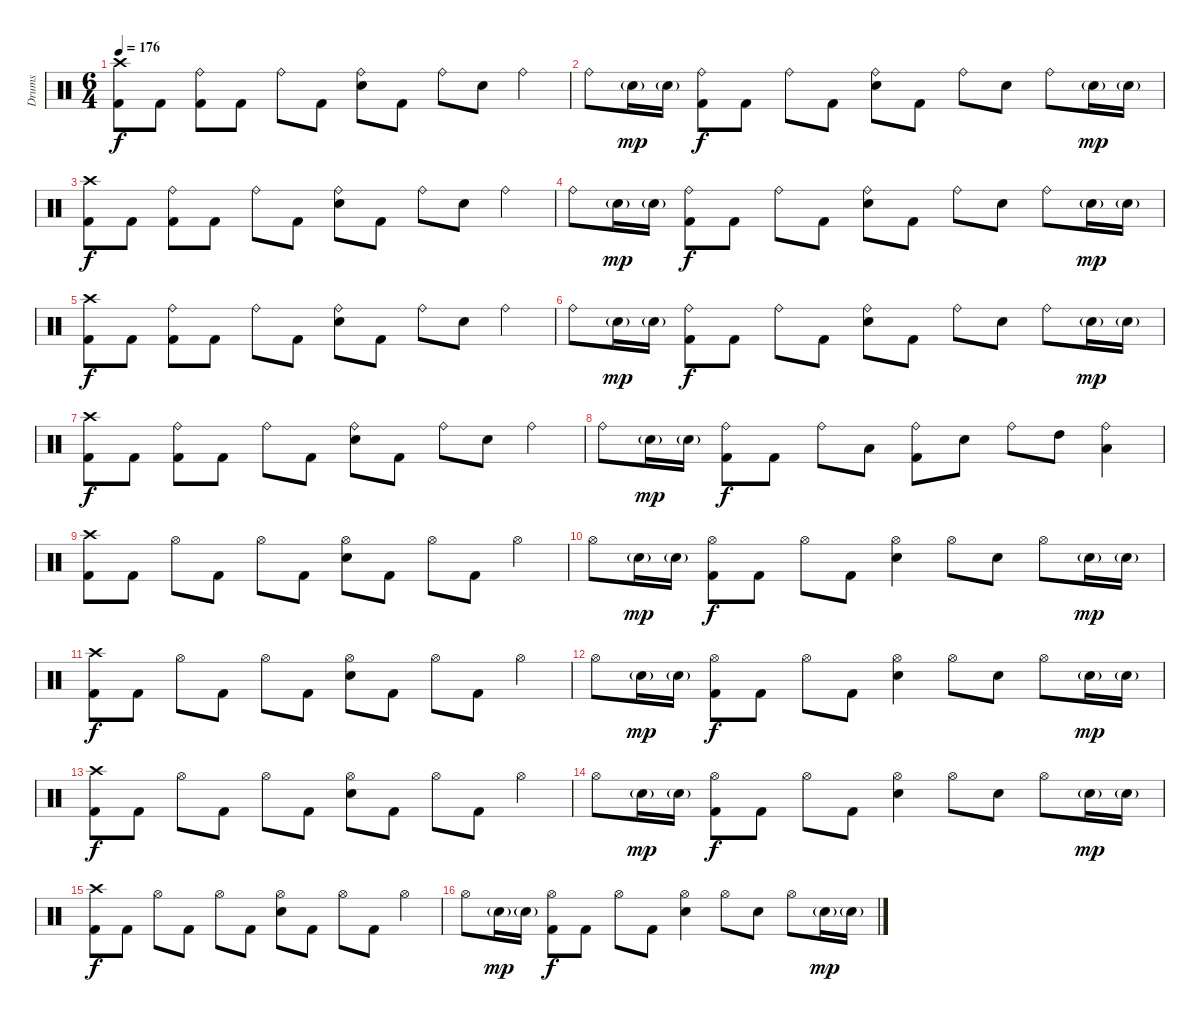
\track ("Drums" "Drums") {instrument percussion}
\staff {score}
\articulation defaults
\ts (6 4)
\tempo 176
\clef neutral
\ks c
("Crash high (hit)" "Kick (hit) 2").8{dy f} "Kick (hit) 2".8 ("Ride (bell)" "Kick (hit) 2").8 "Kick (hit) 2".8 "Ride (bell)".8 "Kick (hit) 2".8 ("Ride (bell)" "Snare (hit) 2").8 "Kick (hit) 2".8 "Ride (bell)".8 "Snare (hit) 2".8 "Ride (bell)".4 |
"Ride (bell)".8 "Snare (hit) 2"{g}.16{dy mp} "Snare (hit) 2"{g}.16 ("Ride (bell)" "Kick (hit) 2").8{dy f} "Kick (hit) 2".8 "Ride (bell)".8 "Kick (hit) 2".8 ("Ride (bell)" "Snare (hit) 2").8 "Kick (hit) 2".8 "Ride (bell)".8 "Snare (hit) 2".8 "Ride (bell)".8 "Snare (hit) 2"{g}.16{dy mp} "Snare (hit) 2"{g}.16 |
("Crash high (hit)" "Kick (hit) 2").8{dy f} "Kick (hit) 2".8 ("Ride (bell)" "Kick (hit) 2").8 "Kick (hit) 2".8 "Ride (bell)".8 "Kick (hit) 2".8 ("Ride (bell)" "Snare (hit) 2").8 "Kick (hit) 2".8 "Ride (bell)".8 "Snare (hit) 2".8 "Ride (bell)".4 |
"Ride (bell)".8 "Snare (hit) 2"{g}.16{dy mp} "Snare (hit) 2"{g}.16 ("Ride (bell)" "Kick (hit) 2").8{dy f} "Kick (hit) 2".8 "Ride (bell)".8 "Kick (hit) 2".8 ("Ride (bell)" "Snare (hit) 2").8 "Kick (hit) 2".8 "Ride (bell)".8 "Snare (hit) 2".8 "Ride (bell)".8 "Snare (hit) 2"{g}.16{dy mp} "Snare (hit) 2"{g}.16 |
("Crash high (hit)" "Kick (hit) 2").8{dy f} "Kick (hit) 2".8 ("Ride (bell)" "Kick (hit) 2").8 "Kick (hit) 2".8 "Ride (bell)".8 "Kick (hit) 2".8 ("Ride (bell)" "Snare (hit) 2").8 "Kick (hit) 2".8 "Ride (bell)".8 "Snare (hit) 2".8 "Ride (bell)".4 |
"Ride (bell)".8 "Snare (hit) 2"{g}.16{dy mp} "Snare (hit) 2"{g}.16 ("Ride (bell)" "Kick (hit) 2").8{dy f} "Kick (hit) 2".8 "Ride (bell)".8 "Kick (hit) 2".8 ("Ride (bell)" "Snare (hit) 2").8 "Kick (hit) 2".8 "Ride (bell)".8 "Snare (hit) 2".8 "Ride (bell)".8 "Snare (hit) 2"{g}.16{dy mp} "Snare (hit) 2"{g}.16 |
("Crash high (hit)" "Kick (hit) 2").8{dy f} "Kick (hit) 2".8 ("Ride (bell)" "Kick (hit) 2").8 "Kick (hit) 2".8 "Ride (bell)".8 "Kick (hit) 2".8 ("Ride (bell)" "Snare (hit) 2").8 "Kick (hit) 2".8 "Ride (bell)".8 "Snare (hit) 2".8 "Ride (bell)".4 |
"Ride (bell)".8 "Snare (hit) 2"{g}.16{dy mp} "Snare (hit) 2"{g}.16 ("Ride (bell)" "Kick (hit) 2").8{dy f} "Kick (hit) 2".8 "Ride (bell)".8 "Low Tom (hit)".8 ("Ride (bell)" "Kick (hit) 2").8 "Snare (hit) 2".8 "Ride (bell)".8 "High Tom (hit)".8 ("Ride (bell)" "Low Tom (hit)").4 |
("Crash high (hit)" "Kick (hit) 2").8 "Kick (hit) 2".8 "Hi-Hat (open)".8 "Kick (hit) 2".8 "Hi-Hat (open)".8 "Kick (hit) 2".8 ("Hi-Hat (open)" "Snare (hit) 2").8 "Kick (hit) 2".8 "Hi-Hat (open)".8 "Kick (hit) 2".8 "Hi-Hat (open)".4 |
"Hi-Hat (open)".8 "Snare (hit) 2"{g}.16{dy mp} "Snare (hit) 2"{g}.16 ("Hi-Hat (open)" "Kick (hit) 2").8{dy f} "Kick (hit) 2".8 "Hi-Hat (open)".8 "Kick (hit) 2".8 ("Hi-Hat (open)" "Snare (hit) 2").4 "Hi-Hat (open)".8 "Snare (hit) 2".8 "Hi-Hat (open)".8 "Snare (hit) 2"{g}.16{dy mp} "Snare (hit) 2"{g}.16 |
("Crash high (hit)" "Kick (hit) 2").8{dy f} "Kick (hit) 2".8 "Hi-Hat (open)".8 "Kick (hit) 2".8 "Hi-Hat (open)".8 "Kick (hit) 2".8 ("Hi-Hat (open)" "Snare (hit) 2").8 "Kick (hit) 2".8 "Hi-Hat (open)".8 "Kick (hit) 2".8 "Hi-Hat (open)".4 |
"Hi-Hat (open)".8 "Snare (hit) 2"{g}.16{dy mp} "Snare (hit) 2"{g}.16 ("Hi-Hat (open)" "Kick (hit) 2").8{dy f} "Kick (hit) 2".8 "Hi-Hat (open)".8 "Kick (hit) 2".8 ("Hi-Hat (open)" "Snare (hit) 2").4 "Hi-Hat (open)".8 "Snare (hit) 2".8 "Hi-Hat (open)".8 "Snare (hit) 2"{g}.16{dy mp} "Snare (hit) 2"{g}.16 |
("Crash high (hit)" "Kick (hit) 2").8{dy f} "Kick (hit) 2".8 "Hi-Hat (open)".8 "Kick (hit) 2".8 "Hi-Hat (open)".8 "Kick (hit) 2".8 ("Hi-Hat (open)" "Snare (hit) 2").8 "Kick (hit) 2".8 "Hi-Hat (open)".8 "Kick (hit) 2".8 "Hi-Hat (open)".4 |
"Hi-Hat (open)".8 "Snare (hit) 2"{g}.16{dy mp} "Snare (hit) 2"{g}.16 ("Hi-Hat (open)" "Kick (hit) 2").8{dy f} "Kick (hit) 2".8 "Hi-Hat (open)".8 "Kick (hit) 2".8 ("Hi-Hat (open)" "Snare (hit) 2").4 "Hi-Hat (open)".8 "Snare (hit) 2".8 "Hi-Hat (open)".8 "Snare (hit) 2"{g}.16{dy mp} "Snare (hit) 2"{g}.16 |
("Crash high (hit)" "Kick (hit) 2").8{dy f} "Kick (hit) 2".8 "Hi-Hat (open)".8 "Kick (hit) 2".8 "Hi-Hat (open)".8 "Kick (hit) 2".8 ("Hi-Hat (open)" "Snare (hit) 2").8 "Kick (hit) 2".8 "Hi-Hat (open)".8 "Kick (hit) 2".8 "Hi-Hat (open)".4 |
"Hi-Hat (open)".8 "Snare (hit) 2"{g}.16{dy mp} "Snare (hit) 2"{g}.16 ("Hi-Hat (open)" "Kick (hit) 2").8{dy f} "Kick (hit) 2".8 "Hi-Hat (open)".8 "Kick (hit) 2".8 ("Hi-Hat (open)" "Snare (hit) 2").4 "Hi-Hat (open)".8 "Snare (hit) 2".8 "Hi-Hat (open)".8 "Snare (hit) 2"{g}.16{dy mp} "Snare (hit) 2"{g}.16
